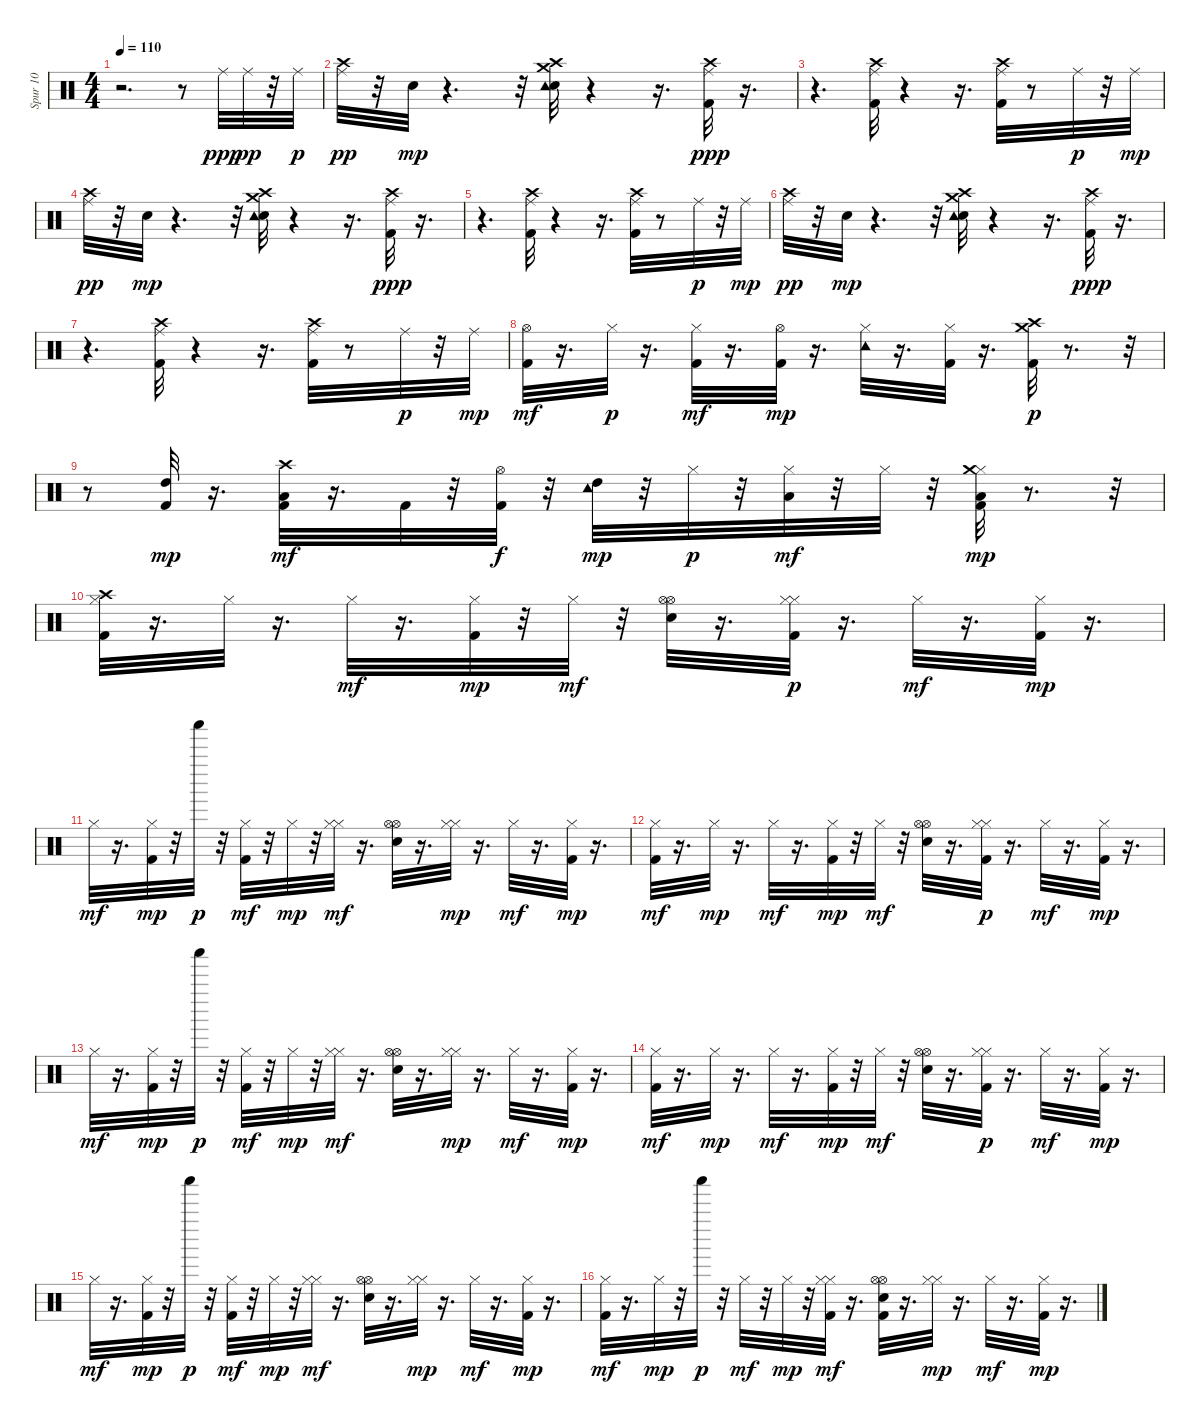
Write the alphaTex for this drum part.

\track ("Spur 10" "Spur 10") {instrument percussion}
\staff {score}
\articulation defaults
\ts (4 4)
\tempo 110
\clef neutral
\ks c
r.2{d dy ppp} r.8 "Ride (middle)".32 "Ride (middle)".32{dy pp} r.32 "Ride (middle)".32{dy p} |
("Ride (middle)" "Crash high (hit)").32{dy pp} r.32 "Snare (hit)".32{dy mp} r.4{d} r.32 ("Snare (hit) 2" "Crash medium (hit)" "Crash high (hit)" "Tambourine (hit)").32 r.4 r.16{d} ("Kick (hit) 2" "Ride (middle)" "Crash high (hit)").32{dy ppp} r.16{d} |
r.4{d} ("Kick (hit) 2" "Ride (middle)" "Crash high (hit)").32 r.4 r.16{d} ("Kick (hit) 2" "Ride (middle)" "Crash high (hit)").32 r.8 "Ride (middle)".32{dy p} r.32 "Ride (middle)".32{dy mp} |
("Ride (middle)" "Crash high (hit)").32{dy pp} r.32 "Snare (hit)".32{dy mp} r.4{d} r.32 ("Snare (hit) 2" "Crash medium (hit)" "Crash high (hit)" "Tambourine (hit)").32 r.4 r.16{d} ("Kick (hit) 2" "Ride (middle)" "Crash high (hit)").32{dy ppp} r.16{d} |
r.4{d} ("Kick (hit) 2" "Ride (middle)" "Crash high (hit)").32 r.4 r.16{d} ("Kick (hit) 2" "Ride (middle)" "Crash high (hit)").32 r.8 "Ride (middle)".32{dy p} r.32 "Ride (middle)".32{dy mp} |
("Ride (middle)" "Crash high (hit)").32{dy pp} r.32 "Snare (hit)".32{dy mp} r.4{d} r.32 ("Snare (hit) 2" "Crash medium (hit)" "Crash high (hit)" "Tambourine (hit)").32 r.4 r.16{d} ("Kick (hit) 2" "Ride (middle)" "Crash high (hit)").32{dy ppp} r.16{d} |
r.4{d} ("Kick (hit) 2" "Ride (middle)" "Crash high (hit)").32 r.4 r.16{d} ("Kick (hit) 2" "Ride (middle)" "Crash high (hit)").32 r.8 "Ride (middle)".32{dy p} r.32 "Ride (middle)".32{dy mp} |
("Kick (hit) 2" "Hi-Hat (open)").32{dy mf} r.16{d} "Hi-Hat (closed)".32{dy p} r.16{d} ("Kick (hit) 2" "Hi-Hat (closed)").32{dy mf} r.16{d} ("Kick (hit) 2" "Hi-Hat (open)").32{dy mp} r.16{d} ("Hi-Hat (closed)" "Tambourine (hit)").32 r.16{d} ("Kick (hit) 2" "Hi-Hat (closed)").32 r.16{d} ("Kick (hit) 2" "Crash medium (hit)" "Crash high (hit)").32{dy p} r.8{d} r.32 |
r.8 ("Kick (hit) 2" "High Tom (hit)").32{dy mp} r.16{d} ("Kick (hit) 2" "Crash high (hit)" "Low Tom (hit)").32{dy mf} r.16{d} "Kick (hit) 2".32 r.32 ("Kick (hit) 2" "Hi-Hat (open)").32{dy f} r.32 ("High Tom (hit)" "Tambourine (hit)").32{dy mp} r.32 "Hi-Hat (closed)".32{dy p} r.32 ("Hi-Hat (closed)" "Low Tom (hit)").32{dy mf} r.32 "Hi-Hat (closed)".32 r.32 ("Kick (hit) 2" "Hi-Hat (closed)" "Crash medium (hit)" "Low Floor Tom (hit)").32{dy mp} r.8{d} r.32 |
("Kick (hit) 2" "Hi-Hat (closed)" "Crash high (hit)").32 r.16{d} "Hi-Hat (closed)".32 r.16{d} "Hi-Hat (closed)".32{dy mf} r.16{d} ("Kick (hit) 2" "Hi-Hat (closed)").32{dy mp} r.32 "Hi-Hat (closed)".32{dy mf} r.32 ("Hi-Hat (open)" "Snare (hit) 2" "Hi-Hat (open)").32 r.16{d} ("Kick (hit) 2" "Hi-Hat (closed)" "Hi-Hat (closed)").32{dy p} r.16{d} "Hi-Hat (closed)".32{dy mf} r.16{d} ("Kick (hit) 2" "Hi-Hat (closed)").32{dy mp} r.16{d} |
"Hi-Hat (closed)".32{dy mf} r.16{d} ("Kick (hit) 2" "Hi-Hat (closed)").32{dy mp} r.32 "Shaker (hit)".32{dy p} r.32 ("Kick (hit) 2" "Hi-Hat (closed)").32{dy mf} r.32 "Hi-Hat (closed)".32{dy mp} r.32 ("Hi-Hat (closed)" "Hi-Hat (closed)").32{dy mf} r.16{d} ("Hi-Hat (open)" "Snare (hit) 2" "Hi-Hat (open)").32 r.16{d} ("Hi-Hat (closed)" "Hi-Hat (closed)").32{dy mp} r.16{d} "Hi-Hat (closed)".32{dy mf} r.16{d} ("Kick (hit) 2" "Hi-Hat (closed)").32{dy mp} r.16{d} |
("Kick (hit) 2" "Hi-Hat (closed)").32{dy mf} r.16{d} "Hi-Hat (closed)".32{dy mp} r.16{d} "Hi-Hat (closed)".32{dy mf} r.16{d} ("Kick (hit) 2" "Hi-Hat (closed)").32{dy mp} r.32 "Hi-Hat (closed)".32{dy mf} r.32 ("Hi-Hat (open)" "Snare (hit) 2" "Hi-Hat (open)").32 r.16{d} ("Kick (hit) 2" "Hi-Hat (closed)" "Hi-Hat (closed)").32{dy p} r.16{d} "Hi-Hat (closed)".32{dy mf} r.16{d} ("Kick (hit) 2" "Hi-Hat (closed)").32{dy mp} r.16{d} |
"Hi-Hat (closed)".32{dy mf} r.16{d} ("Kick (hit) 2" "Hi-Hat (closed)").32{dy mp} r.32 "Shaker (hit)".32{dy p} r.32 ("Kick (hit) 2" "Hi-Hat (closed)").32{dy mf} r.32 "Hi-Hat (closed)".32{dy mp} r.32 ("Hi-Hat (closed)" "Hi-Hat (closed)").32{dy mf} r.16{d} ("Hi-Hat (open)" "Snare (hit) 2" "Hi-Hat (open)").32 r.16{d} ("Hi-Hat (closed)" "Hi-Hat (closed)").32{dy mp} r.16{d} "Hi-Hat (closed)".32{dy mf} r.16{d} ("Kick (hit) 2" "Hi-Hat (closed)").32{dy mp} r.16{d} |
("Kick (hit) 2" "Hi-Hat (closed)").32{dy mf} r.16{d} "Hi-Hat (closed)".32{dy mp} r.16{d} "Hi-Hat (closed)".32{dy mf} r.16{d} ("Kick (hit) 2" "Hi-Hat (closed)").32{dy mp} r.32 "Hi-Hat (closed)".32{dy mf} r.32 ("Hi-Hat (open)" "Snare (hit) 2" "Hi-Hat (open)").32 r.16{d} ("Kick (hit) 2" "Hi-Hat (closed)" "Hi-Hat (closed)").32{dy p} r.16{d} "Hi-Hat (closed)".32{dy mf} r.16{d} ("Kick (hit) 2" "Hi-Hat (closed)").32{dy mp} r.16{d} |
"Hi-Hat (closed)".32{dy mf} r.16{d} ("Kick (hit) 2" "Hi-Hat (closed)").32{dy mp} r.32 "Shaker (hit)".32{dy p} r.32 ("Kick (hit) 2" "Hi-Hat (closed)").32{dy mf} r.32 "Hi-Hat (closed)".32{dy mp} r.32 ("Hi-Hat (closed)" "Hi-Hat (closed)").32{dy mf} r.16{d} ("Hi-Hat (open)" "Snare (hit) 2" "Hi-Hat (open)").32 r.16{d} ("Hi-Hat (closed)" "Hi-Hat (closed)").32{dy mp} r.16{d} "Hi-Hat (closed)".32{dy mf} r.16{d} ("Kick (hit) 2" "Hi-Hat (closed)").32{dy mp} r.16{d} |
("Kick (hit) 2" "Hi-Hat (closed)").32{dy mf} r.16{d} "Hi-Hat (closed)".32{dy mp} r.32 "Shaker (hit)".32{dy p} r.32 "Hi-Hat (closed)".32{dy mf} r.32 "Hi-Hat (closed)".32{dy mp} r.32 ("Kick (hit) 2" "Hi-Hat (closed)" "Hi-Hat (closed)").32{dy mf} r.16{d} ("Kick (hit) 2" "Hi-Hat (open)" "Snare (hit) 2" "Hi-Hat (open)").32 r.16{d} ("Hi-Hat (closed)" "Hi-Hat (closed)").32{dy mp} r.16{d} "Hi-Hat (closed)".32{dy mf} r.16{d} ("Kick (hit) 2" "Hi-Hat (closed)").32{dy mp} r.16{d}
